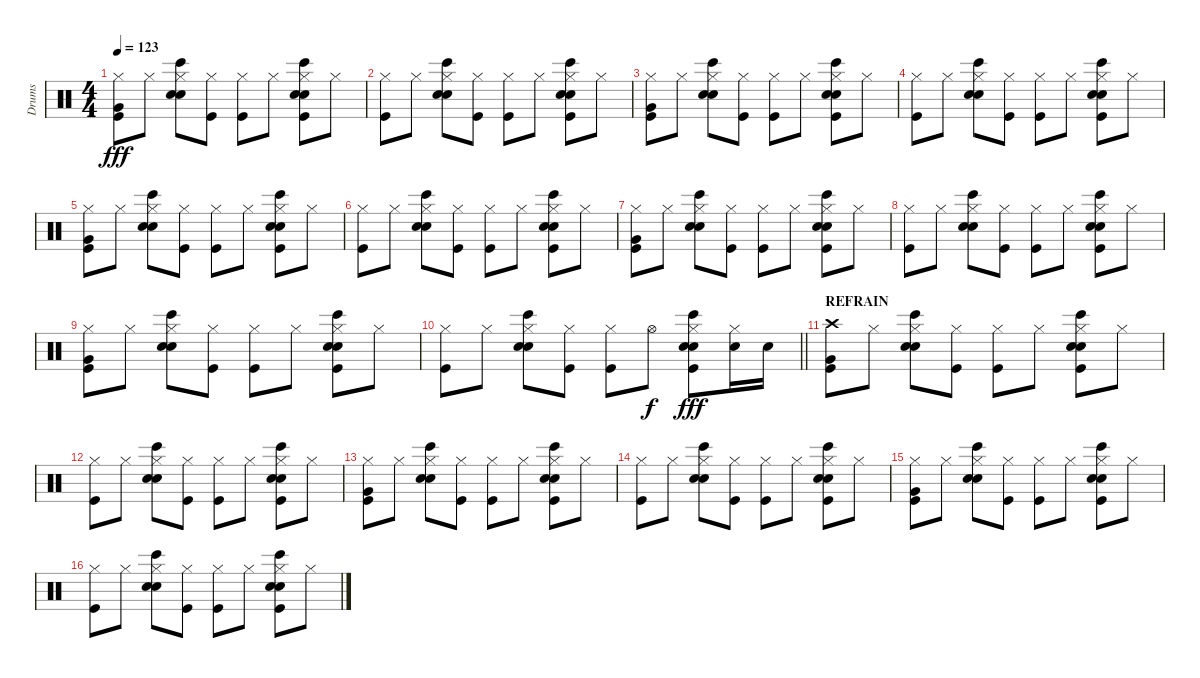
\track ("Drums" "Drums") {instrument percussion}
\staff {score}
\articulation defaults
\ts (4 4)
\tempo 123
\clef neutral
\ks c
("Kick (hit)" "Hi-Hat (closed)" "Very Low Tom (hit)").8{dy fff} "Hi-Hat (closed)".8 ("Hi-Hat (closed)" "Bongo High (hit)" "Hand Clap (hit)" "Electric Snare (hit)").8 ("Kick (hit)" "Hi-Hat (closed)").8 ("Hi-Hat (closed)" "Kick (hit)").8 "Hi-Hat (closed)".8 ("Hi-Hat (closed)" "Kick (hit)" "Electric Snare (hit)" "Hand Clap (hit)" "Bongo High (hit)").8 "Hi-Hat (closed)".8 |
("Hi-Hat (closed)" "Kick (hit)").8 "Hi-Hat (closed)".8 ("Hi-Hat (closed)" "Electric Snare (hit)" "Bongo High (hit)" "Hand Clap (hit)").8 ("Hi-Hat (closed)" "Kick (hit)").8 ("Hi-Hat (closed)" "Kick (hit)").8 "Hi-Hat (closed)".8 ("Hi-Hat (closed)" "Kick (hit)" "Electric Snare (hit)" "Bongo High (hit)" "Hand Clap (hit)").8 "Hi-Hat (closed)".8 |
("Kick (hit)" "Hi-Hat (closed)" "Very Low Tom (hit)").8 "Hi-Hat (closed)".8 ("Hi-Hat (closed)" "Bongo High (hit)" "Hand Clap (hit)" "Electric Snare (hit)").8 ("Kick (hit)" "Hi-Hat (closed)").8 ("Hi-Hat (closed)" "Kick (hit)").8 "Hi-Hat (closed)".8 ("Hi-Hat (closed)" "Kick (hit)" "Electric Snare (hit)" "Hand Clap (hit)" "Bongo High (hit)").8 "Hi-Hat (closed)".8 |
("Hi-Hat (closed)" "Kick (hit)").8 "Hi-Hat (closed)".8 ("Hi-Hat (closed)" "Electric Snare (hit)" "Bongo High (hit)" "Hand Clap (hit)").8 ("Hi-Hat (closed)" "Kick (hit)").8 ("Hi-Hat (closed)" "Kick (hit)").8 "Hi-Hat (closed)".8 ("Hi-Hat (closed)" "Kick (hit)" "Electric Snare (hit)" "Bongo High (hit)" "Hand Clap (hit)").8 "Hi-Hat (closed)".8 |
("Kick (hit)" "Hi-Hat (closed)" "Very Low Tom (hit)").8 "Hi-Hat (closed)".8 ("Hi-Hat (closed)" "Bongo High (hit)" "Hand Clap (hit)" "Electric Snare (hit)").8 ("Kick (hit)" "Hi-Hat (closed)").8 ("Hi-Hat (closed)" "Kick (hit)").8 "Hi-Hat (closed)".8 ("Hi-Hat (closed)" "Kick (hit)" "Electric Snare (hit)" "Hand Clap (hit)" "Bongo High (hit)").8 "Hi-Hat (closed)".8 |
("Hi-Hat (closed)" "Kick (hit)").8 "Hi-Hat (closed)".8 ("Hi-Hat (closed)" "Electric Snare (hit)" "Bongo High (hit)" "Hand Clap (hit)").8 ("Hi-Hat (closed)" "Kick (hit)").8 ("Hi-Hat (closed)" "Kick (hit)").8 "Hi-Hat (closed)".8 ("Hi-Hat (closed)" "Kick (hit)" "Electric Snare (hit)" "Bongo High (hit)" "Hand Clap (hit)").8 "Hi-Hat (closed)".8 |
("Kick (hit)" "Hi-Hat (closed)" "Very Low Tom (hit)").8 "Hi-Hat (closed)".8 ("Hi-Hat (closed)" "Bongo High (hit)" "Hand Clap (hit)" "Electric Snare (hit)").8 ("Kick (hit)" "Hi-Hat (closed)").8 ("Hi-Hat (closed)" "Kick (hit)").8 "Hi-Hat (closed)".8 ("Hi-Hat (closed)" "Kick (hit)" "Electric Snare (hit)" "Hand Clap (hit)" "Bongo High (hit)").8 "Hi-Hat (closed)".8 |
("Hi-Hat (closed)" "Kick (hit)").8 "Hi-Hat (closed)".8 ("Hi-Hat (closed)" "Electric Snare (hit)" "Bongo High (hit)" "Hand Clap (hit)").8 ("Hi-Hat (closed)" "Kick (hit)").8 ("Hi-Hat (closed)" "Kick (hit)").8 "Hi-Hat (closed)".8 ("Hi-Hat (closed)" "Kick (hit)" "Electric Snare (hit)" "Bongo High (hit)" "Hand Clap (hit)").8 "Hi-Hat (closed)".8 |
("Kick (hit)" "Hi-Hat (closed)" "Very Low Tom (hit)").8 "Hi-Hat (closed)".8 ("Hi-Hat (closed)" "Bongo High (hit)" "Hand Clap (hit)" "Electric Snare (hit)").8 ("Kick (hit)" "Hi-Hat (closed)").8 ("Hi-Hat (closed)" "Kick (hit)").8 "Hi-Hat (closed)".8 ("Hi-Hat (closed)" "Kick (hit)" "Electric Snare (hit)" "Hand Clap (hit)" "Bongo High (hit)").8 "Hi-Hat (closed)".8 |
\barLineRight lightlight
("Hi-Hat (closed)" "Kick (hit)").8 "Hi-Hat (closed)".8 ("Hi-Hat (closed)" "Electric Snare (hit)" "Bongo High (hit)" "Hand Clap (hit)").8 ("Hi-Hat (closed)" "Kick (hit)").8 ("Hi-Hat (closed)" "Kick (hit)").8 "Hi-Hat (open)".8{dy f} ("Hi-Hat (closed)" "Bongo High (hit)" "Electric Snare (hit)" "Kick (hit)" "Hand Clap (hit)").8{dy fff} ("Electric Snare (hit)" "Hi-Hat (closed)").16 "Electric Snare (hit)".16 |
\section ("" "REFRAIN")
("Kick (hit)" "Crash high (hit)" "Very Low Tom (hit)").8 "Hi-Hat (closed)".8 ("Hi-Hat (closed)" "Bongo High (hit)" "Hand Clap (hit)" "Electric Snare (hit)").8 ("Kick (hit)" "Hi-Hat (closed)").8 ("Hi-Hat (closed)" "Kick (hit)").8 "Hi-Hat (closed)".8 ("Hi-Hat (closed)" "Kick (hit)" "Electric Snare (hit)" "Hand Clap (hit)" "Bongo High (hit)").8 "Hi-Hat (closed)".8 |
("Hi-Hat (closed)" "Kick (hit)").8 "Hi-Hat (closed)".8 ("Hi-Hat (closed)" "Electric Snare (hit)" "Bongo High (hit)" "Hand Clap (hit)").8 ("Hi-Hat (closed)" "Kick (hit)").8 ("Hi-Hat (closed)" "Kick (hit)").8 "Hi-Hat (closed)".8 ("Hi-Hat (closed)" "Kick (hit)" "Electric Snare (hit)" "Bongo High (hit)" "Hand Clap (hit)").8 "Hi-Hat (closed)".8 |
("Kick (hit)" "Hi-Hat (closed)" "Very Low Tom (hit)").8 "Hi-Hat (closed)".8 ("Hi-Hat (closed)" "Bongo High (hit)" "Hand Clap (hit)" "Electric Snare (hit)").8 ("Kick (hit)" "Hi-Hat (closed)").8 ("Hi-Hat (closed)" "Kick (hit)").8 "Hi-Hat (closed)".8 ("Hi-Hat (closed)" "Kick (hit)" "Electric Snare (hit)" "Hand Clap (hit)" "Bongo High (hit)").8 "Hi-Hat (closed)".8 |
("Hi-Hat (closed)" "Kick (hit)").8 "Hi-Hat (closed)".8 ("Hi-Hat (closed)" "Electric Snare (hit)" "Bongo High (hit)" "Hand Clap (hit)").8 ("Hi-Hat (closed)" "Kick (hit)").8 ("Hi-Hat (closed)" "Kick (hit)").8 "Hi-Hat (closed)".8 ("Hi-Hat (closed)" "Kick (hit)" "Electric Snare (hit)" "Bongo High (hit)" "Hand Clap (hit)").8 "Hi-Hat (closed)".8 |
("Kick (hit)" "Hi-Hat (closed)" "Very Low Tom (hit)").8 "Hi-Hat (closed)".8 ("Hi-Hat (closed)" "Bongo High (hit)" "Hand Clap (hit)" "Electric Snare (hit)").8 ("Kick (hit)" "Hi-Hat (closed)").8 ("Hi-Hat (closed)" "Kick (hit)").8 "Hi-Hat (closed)".8 ("Hi-Hat (closed)" "Kick (hit)" "Electric Snare (hit)" "Hand Clap (hit)" "Bongo High (hit)").8 "Hi-Hat (closed)".8 |
("Hi-Hat (closed)" "Kick (hit)").8 "Hi-Hat (closed)".8 ("Hi-Hat (closed)" "Electric Snare (hit)" "Bongo High (hit)" "Hand Clap (hit)").8 ("Hi-Hat (closed)" "Kick (hit)").8 ("Hi-Hat (closed)" "Kick (hit)").8 "Hi-Hat (closed)".8 ("Hi-Hat (closed)" "Kick (hit)" "Electric Snare (hit)" "Bongo High (hit)" "Hand Clap (hit)").8 "Hi-Hat (closed)".8
